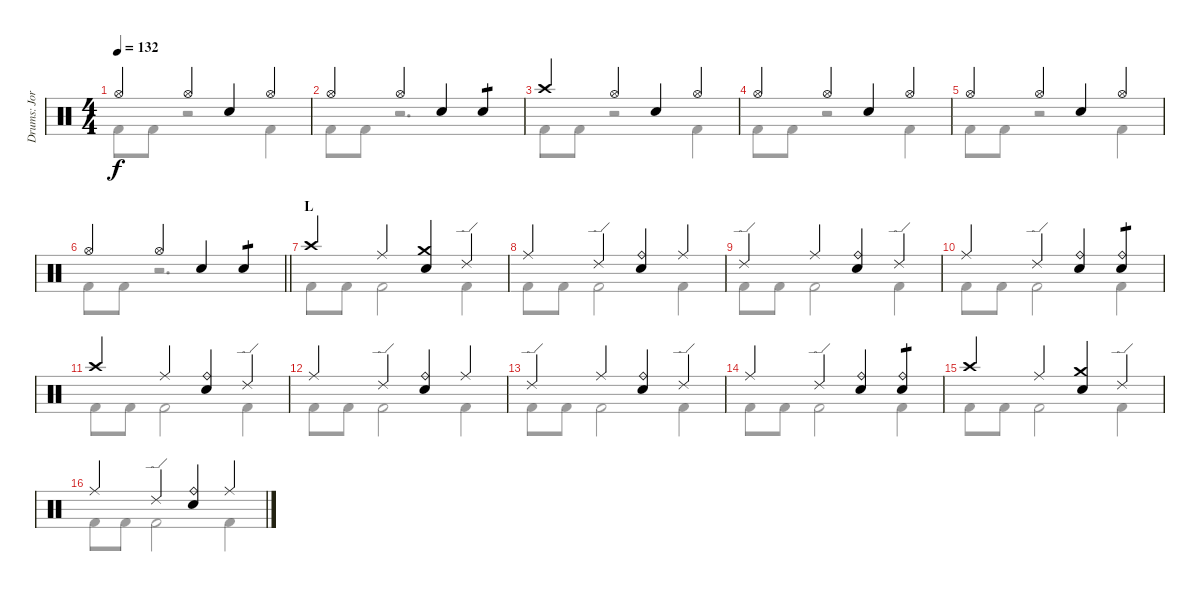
\track ("Drums: Jorg" "Drums: Jor") {instrument percussion}
\staff {score}
\articulation defaults
\voice
\ts (4 4)
\tempo 132
\clef neutral
\ks c "Hi-Hat (open)".4{dy f} "Hi-Hat (open)".4 "Snare (hit) 2".4 "Hi-Hat (open)".4
|
"Hi-Hat (open)".4 "Hi-Hat (open)".4 "Snare (hit) 2".4 "Snare (hit) 2".4{tp 1} |
"Crash high (hit)".4 "Hi-Hat (open)".4 "Snare (hit) 2".4 "Hi-Hat (open)".4 |
"Hi-Hat (open)".4 "Hi-Hat (open)".4 "Snare (hit) 2".4 "Hi-Hat (open)".4 |
"Hi-Hat (open)".4 "Hi-Hat (open)".4 "Snare (hit) 2".4 "Hi-Hat (open)".4 |
\barLineRight lightlight "Hi-Hat (open)".4 "Hi-Hat (open)".4 "Snare (hit) 2".4 "Snare (hit) 2".4{tp 1}
|
\section ("" "L")
"Crash high (hit)".4 "Ride (middle)".4 ("Crash medium (hit)" "Snare (hit) 2").4 "Ride (edge) 2".4 |
"Ride (middle)".4 "Ride (edge) 2".4 ("Ride (bell)" "Snare (hit) 2").4 "Ride (middle)".4 |
"Ride (edge) 2".4 "Ride (middle)".4 ("Ride (bell)" "Snare (hit) 2").4 "Ride (edge) 2".4 |
"Ride (middle)".4 "Ride (edge) 2".4 ("Ride (bell)" "Snare (hit) 2").4 ("Ride (bell)" "Snare (hit) 2").4{tp 1} |
"Crash high (hit)".4 "Ride (middle)".4 ("Ride (bell)" "Snare (hit) 2").4 "Ride (edge) 2".4 |
"Ride (middle)".4 "Ride (edge) 2".4 ("Ride (bell)" "Snare (hit) 2").4 "Ride (middle)".4 |
"Ride (edge) 2".4 "Ride (middle)".4 ("Ride (bell)" "Snare (hit) 2").4 "Ride (edge) 2".4 |
"Ride (middle)".4 "Ride (edge) 2".4 ("Ride (bell)" "Snare (hit) 2").4 ("Ride (bell)" "Snare (hit) 2").4{tp 1} |
"Crash high (hit)".4 "Ride (middle)".4 ("Crash medium (hit)" "Snare (hit) 2").4 "Ride (edge) 2".4 |
"Ride (middle)".4 "Ride (edge) 2".4 ("Ride (bell)" "Snare (hit) 2").4 "Ride (middle)".4
\voice
\clef neutral
\ottava regular
\simile none
\ks c "Kick (hit) 2".8{dy f} "Kick (hit) 2".8
r.2 "Kick (hit) 2".4 |
"Kick (hit) 2".8 "Kick (hit) 2".8 r.2{d} |
"Kick (hit) 2".8 "Kick (hit) 2".8 r.2 "Kick (hit) 2".4 |
"Kick (hit) 2".8 "Kick (hit) 2".8 r.2 "Kick (hit) 2".4 |
"Kick (hit) 2".8 "Kick (hit) 2".8 r.2 "Kick (hit) 2".4 |
\barLineRight lightlight "Kick (hit) 2".8 "Kick (hit) 2".8
r.2{d} |
"Kick (hit) 2".8 "Kick (hit) 2".8 "Kick (hit) 2".2 "Kick (hit) 2".4 |
"Kick (hit) 2".8 "Kick (hit) 2".8 "Kick (hit) 2".2 "Kick (hit) 2".4 |
"Kick (hit) 2".8 "Kick (hit) 2".8 "Kick (hit) 2".2 "Kick (hit) 2".4 |
"Kick (hit) 2".8 "Kick (hit) 2".8 "Kick (hit) 2".2 "Kick (hit) 2".4 |
"Kick (hit) 2".8 "Kick (hit) 2".8 "Kick (hit) 2".2 "Kick (hit) 2".4 |
"Kick (hit) 2".8 "Kick (hit) 2".8 "Kick (hit) 2".2 "Kick (hit) 2".4 |
"Kick (hit) 2".8 "Kick (hit) 2".8 "Kick (hit) 2".2 "Kick (hit) 2".4 |
"Kick (hit) 2".8 "Kick (hit) 2".8 "Kick (hit) 2".2 "Kick (hit) 2".4 |
"Kick (hit) 2".8 "Kick (hit) 2".8 "Kick (hit) 2".2 "Kick (hit) 2".4 |
"Kick (hit) 2".8 "Kick (hit) 2".8 "Kick (hit) 2".2 "Kick (hit) 2".4
